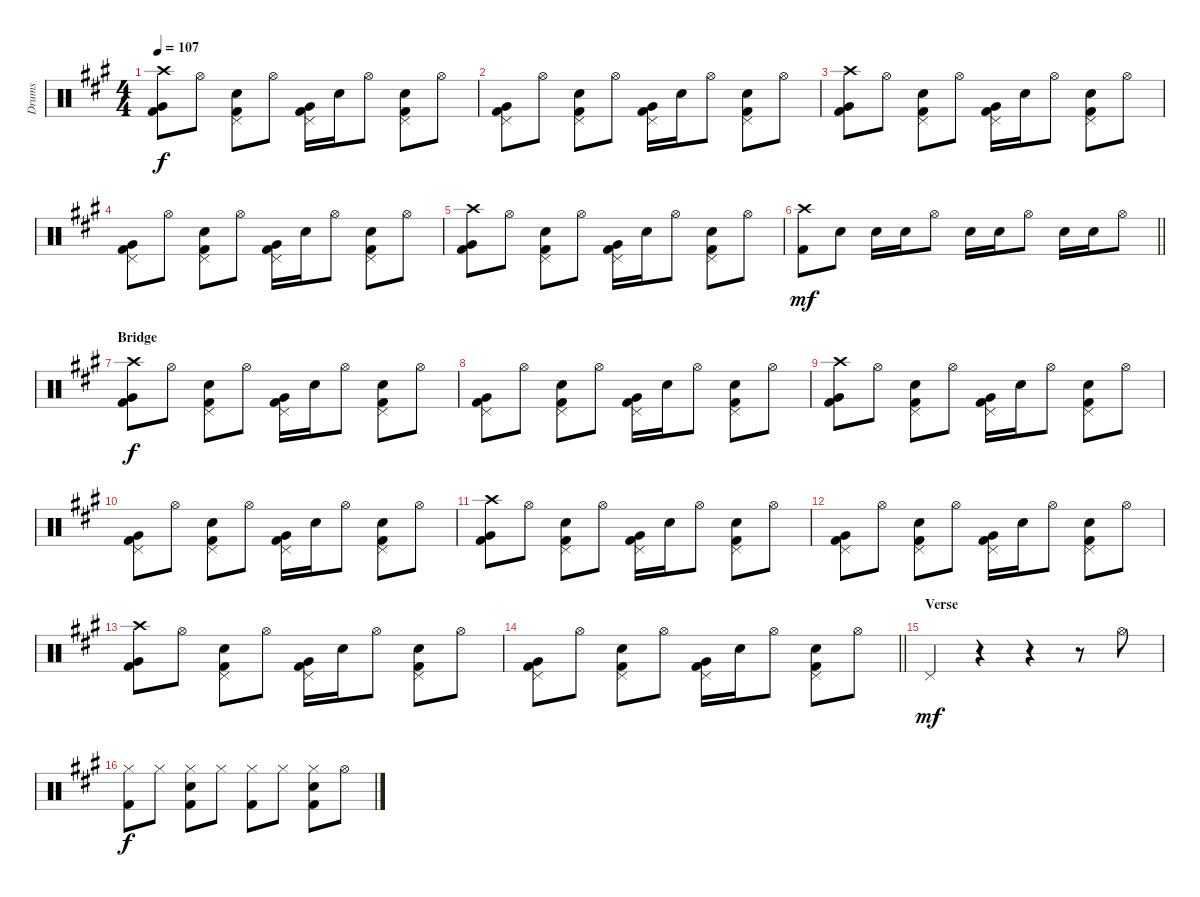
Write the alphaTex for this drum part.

\track ("Drums" "Drums") {instrument percussion}
\staff {score}
\articulation defaults
\ts (4 4)
\tempo 107
\clef neutral
\ks f#minor
("Crash high (hit)" "Very Low Tom (hit)" "Kick (hit) 2").8{dy f} "Hi-Hat (open)".8 ("Electric Snare (hit)" "Pedal Hi-Hat (hit)" "Kick (hit) 2").8 "Hi-Hat (open)".8 ("Very Low Tom (hit)" "Pedal Hi-Hat (hit)" "Kick (hit) 2").16 "Electric Snare (hit)".16 "Hi-Hat (open)".8 ("Electric Snare (hit)" "Pedal Hi-Hat (hit)" "Kick (hit) 2").8 "Hi-Hat (open)".8 |
("Very Low Tom (hit)" "Pedal Hi-Hat (hit)" "Kick (hit) 2").8 "Hi-Hat (open)".8 ("Electric Snare (hit)" "Pedal Hi-Hat (hit)" "Kick (hit) 2").8 "Hi-Hat (open)".8 ("Very Low Tom (hit)" "Pedal Hi-Hat (hit)" "Kick (hit) 2").16 "Electric Snare (hit)".16 "Hi-Hat (open)".8 ("Electric Snare (hit)" "Pedal Hi-Hat (hit)" "Kick (hit) 2").8 "Hi-Hat (open)".8 |
("Crash high (hit)" "Very Low Tom (hit)" "Kick (hit) 2").8 "Hi-Hat (open)".8 ("Electric Snare (hit)" "Pedal Hi-Hat (hit)" "Kick (hit) 2").8 "Hi-Hat (open)".8 ("Very Low Tom (hit)" "Pedal Hi-Hat (hit)" "Kick (hit) 2").16 "Electric Snare (hit)".16 "Hi-Hat (open)".8 ("Electric Snare (hit)" "Pedal Hi-Hat (hit)" "Kick (hit) 2").8 "Hi-Hat (open)".8 |
("Very Low Tom (hit)" "Pedal Hi-Hat (hit)" "Kick (hit) 2").8 "Hi-Hat (open)".8 ("Electric Snare (hit)" "Pedal Hi-Hat (hit)" "Kick (hit) 2").8 "Hi-Hat (open)".8 ("Very Low Tom (hit)" "Pedal Hi-Hat (hit)" "Kick (hit) 2").16 "Electric Snare (hit)".16 "Hi-Hat (open)".8 ("Electric Snare (hit)" "Pedal Hi-Hat (hit)" "Kick (hit) 2").8 "Hi-Hat (open)".8 |
("Crash high (hit)" "Very Low Tom (hit)" "Kick (hit) 2").8 "Hi-Hat (open)".8 ("Electric Snare (hit)" "Pedal Hi-Hat (hit)" "Kick (hit) 2").8 "Hi-Hat (open)".8 ("Very Low Tom (hit)" "Pedal Hi-Hat (hit)" "Kick (hit) 2").16 "Electric Snare (hit)".16 "Hi-Hat (open)".8 ("Electric Snare (hit)" "Pedal Hi-Hat (hit)" "Kick (hit) 2").8 "Hi-Hat (open)".8 |
\barLineRight lightlight
("Crash high (hit)" "Kick (hit) 2").8{dy mf} "Electric Snare (hit)".8 "Electric Snare (hit)".16 "Electric Snare (hit)".16 "Hi-Hat (open)".8 "Electric Snare (hit)".16 "Electric Snare (hit)".16 "Hi-Hat (open)".8 "Electric Snare (hit)".16 "Electric Snare (hit)".16 "Hi-Hat (open)".8 |
\section ("" "Bridge")
("Crash high (hit)" "Very Low Tom (hit)" "Kick (hit) 2").8{dy f} "Hi-Hat (open)".8 ("Electric Snare (hit)" "Pedal Hi-Hat (hit)" "Kick (hit) 2").8 "Hi-Hat (open)".8 ("Very Low Tom (hit)" "Pedal Hi-Hat (hit)" "Kick (hit) 2").16 "Electric Snare (hit)".16 "Hi-Hat (open)".8 ("Electric Snare (hit)" "Pedal Hi-Hat (hit)" "Kick (hit) 2").8 "Hi-Hat (open)".8 |
("Very Low Tom (hit)" "Pedal Hi-Hat (hit)" "Kick (hit) 2").8 "Hi-Hat (open)".8 ("Electric Snare (hit)" "Pedal Hi-Hat (hit)" "Kick (hit) 2").8 "Hi-Hat (open)".8 ("Very Low Tom (hit)" "Pedal Hi-Hat (hit)" "Kick (hit) 2").16 "Electric Snare (hit)".16 "Hi-Hat (open)".8 ("Electric Snare (hit)" "Pedal Hi-Hat (hit)" "Kick (hit) 2").8 "Hi-Hat (open)".8 |
("Crash high (hit)" "Very Low Tom (hit)" "Kick (hit) 2").8 "Hi-Hat (open)".8 ("Electric Snare (hit)" "Pedal Hi-Hat (hit)" "Kick (hit) 2").8 "Hi-Hat (open)".8 ("Very Low Tom (hit)" "Pedal Hi-Hat (hit)" "Kick (hit) 2").16 "Electric Snare (hit)".16 "Hi-Hat (open)".8 ("Electric Snare (hit)" "Pedal Hi-Hat (hit)" "Kick (hit) 2").8 "Hi-Hat (open)".8 |
("Very Low Tom (hit)" "Pedal Hi-Hat (hit)" "Kick (hit) 2").8 "Hi-Hat (open)".8 ("Electric Snare (hit)" "Pedal Hi-Hat (hit)" "Kick (hit) 2").8 "Hi-Hat (open)".8 ("Very Low Tom (hit)" "Pedal Hi-Hat (hit)" "Kick (hit) 2").16 "Electric Snare (hit)".16 "Hi-Hat (open)".8 ("Electric Snare (hit)" "Pedal Hi-Hat (hit)" "Kick (hit) 2").8 "Hi-Hat (open)".8 |
("Crash high (hit)" "Very Low Tom (hit)" "Kick (hit) 2").8 "Hi-Hat (open)".8 ("Electric Snare (hit)" "Pedal Hi-Hat (hit)" "Kick (hit) 2").8 "Hi-Hat (open)".8 ("Very Low Tom (hit)" "Pedal Hi-Hat (hit)" "Kick (hit) 2").16 "Electric Snare (hit)".16 "Hi-Hat (open)".8 ("Electric Snare (hit)" "Pedal Hi-Hat (hit)" "Kick (hit) 2").8 "Hi-Hat (open)".8 |
("Very Low Tom (hit)" "Pedal Hi-Hat (hit)" "Kick (hit) 2").8 "Hi-Hat (open)".8 ("Electric Snare (hit)" "Pedal Hi-Hat (hit)" "Kick (hit) 2").8 "Hi-Hat (open)".8 ("Very Low Tom (hit)" "Pedal Hi-Hat (hit)" "Kick (hit) 2").16 "Electric Snare (hit)".16 "Hi-Hat (open)".8 ("Electric Snare (hit)" "Pedal Hi-Hat (hit)" "Kick (hit) 2").8 "Hi-Hat (open)".8 |
("Crash high (hit)" "Very Low Tom (hit)" "Kick (hit) 2").8 "Hi-Hat (open)".8 ("Electric Snare (hit)" "Pedal Hi-Hat (hit)" "Kick (hit) 2").8 "Hi-Hat (open)".8 ("Very Low Tom (hit)" "Pedal Hi-Hat (hit)" "Kick (hit) 2").16 "Electric Snare (hit)".16 "Hi-Hat (open)".8 ("Electric Snare (hit)" "Pedal Hi-Hat (hit)" "Kick (hit) 2").8 "Hi-Hat (open)".8 |
\barLineRight lightlight
("Very Low Tom (hit)" "Pedal Hi-Hat (hit)" "Kick (hit) 2").8 "Hi-Hat (open)".8 ("Electric Snare (hit)" "Pedal Hi-Hat (hit)" "Kick (hit) 2").8 "Hi-Hat (open)".8 ("Very Low Tom (hit)" "Pedal Hi-Hat (hit)" "Kick (hit) 2").16 "Electric Snare (hit)".16 "Hi-Hat (open)".8 ("Electric Snare (hit)" "Pedal Hi-Hat (hit)" "Kick (hit) 2").8 "Hi-Hat (open)".8 |
\section ("" "Verse")
"Pedal Hi-Hat (hit)".4{dy mf} r.4 r.4 r.8 "Hi-Hat (open)".8 |
("Hi-Hat (closed)" "Kick (hit) 2").8{dy f} "Hi-Hat (closed)".8 ("Hi-Hat (closed)" "Electric Snare (hit)" "Kick (hit) 2").8 "Hi-Hat (closed)".8 ("Hi-Hat (closed)" "Kick (hit) 2").8 "Hi-Hat (closed)".8 ("Hi-Hat (closed)" "Electric Snare (hit)" "Kick (hit) 2").8 "Hi-Hat (open)".8
